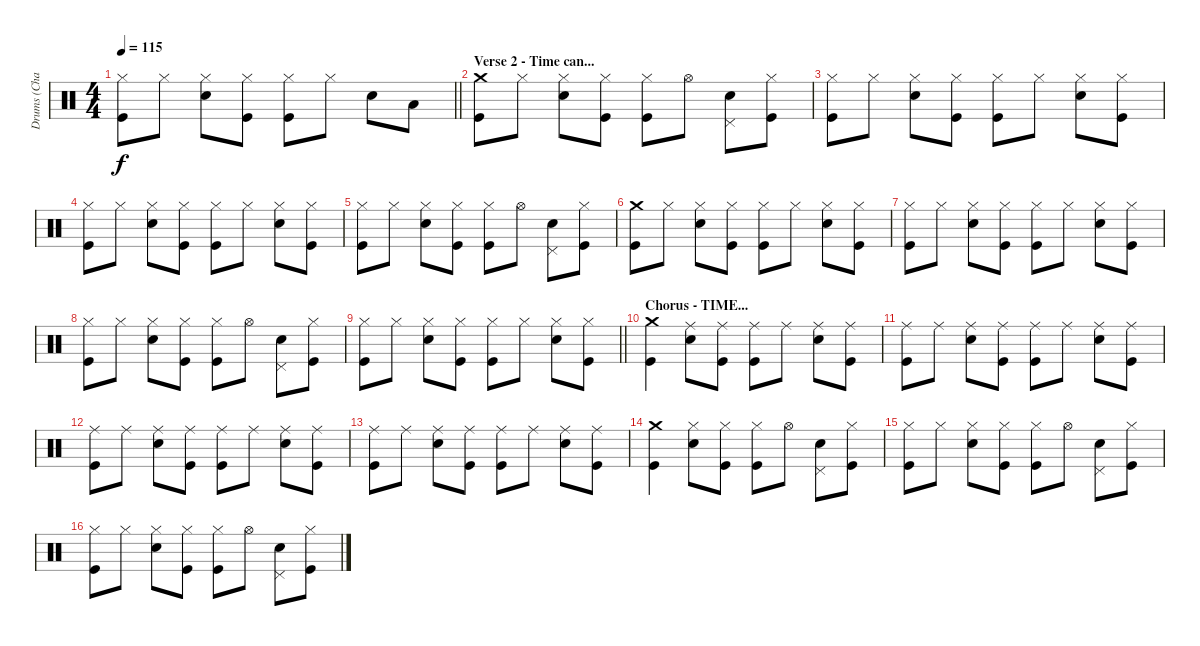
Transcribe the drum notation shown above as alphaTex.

\track ("Drums (Charlie)" "Drums (Cha") {instrument percussion}
\staff {score}
\articulation defaults
\ts (4 4)
\tempo 115
\clef neutral
\barLineRight lightlight
\ks c
("Hi-Hat (closed)" "Kick (hit)").8{dy f} "Hi-Hat (closed)".8 ("Hi-Hat (closed)" "Electric Snare (hit)").8 ("Hi-Hat (closed)" "Kick (hit)").8 ("Hi-Hat (closed)" "Kick (hit)").8 "Hi-Hat (closed)".8 "Electric Snare (hit)".8 "Low Tom (hit)".8 |
\section ("" "Verse 2 - Time can...")
("Crash medium (hit)" "Kick (hit)").8 "Hi-Hat (closed)".8 ("Hi-Hat (closed)" "Electric Snare (hit)").8 ("Hi-Hat (closed)" "Kick (hit)").8 ("Hi-Hat (closed)" "Kick (hit)").8 "Hi-Hat (open)".8 ("Pedal Hi-Hat (hit)" "Electric Snare (hit)").8 ("Hi-Hat (closed)" "Kick (hit)").8 |
("Hi-Hat (closed)" "Kick (hit)").8 "Hi-Hat (closed)".8 ("Hi-Hat (closed)" "Electric Snare (hit)").8 ("Hi-Hat (closed)" "Kick (hit)").8 ("Hi-Hat (closed)" "Kick (hit)").8 "Hi-Hat (closed)".8 ("Hi-Hat (closed)" "Electric Snare (hit)").8 ("Hi-Hat (closed)" "Kick (hit)").8 |
("Hi-Hat (closed)" "Kick (hit)").8 "Hi-Hat (closed)".8 ("Hi-Hat (closed)" "Electric Snare (hit)").8 ("Hi-Hat (closed)" "Kick (hit)").8 ("Hi-Hat (closed)" "Kick (hit)").8 "Hi-Hat (closed)".8 ("Hi-Hat (closed)" "Electric Snare (hit)").8 ("Hi-Hat (closed)" "Kick (hit)").8 |
("Hi-Hat (closed)" "Kick (hit)").8 "Hi-Hat (closed)".8 ("Hi-Hat (closed)" "Electric Snare (hit)").8 ("Hi-Hat (closed)" "Kick (hit)").8 ("Hi-Hat (closed)" "Kick (hit)").8 "Hi-Hat (open)".8 ("Pedal Hi-Hat (hit)" "Electric Snare (hit)").8 ("Hi-Hat (closed)" "Kick (hit)").8 |
("Crash medium (hit)" "Kick (hit)").8 "Hi-Hat (closed)".8 ("Hi-Hat (closed)" "Electric Snare (hit)").8 ("Hi-Hat (closed)" "Kick (hit)").8 ("Hi-Hat (closed)" "Kick (hit)").8 "Hi-Hat (closed)".8 ("Hi-Hat (closed)" "Electric Snare (hit)").8 ("Hi-Hat (closed)" "Kick (hit)").8 |
("Hi-Hat (closed)" "Kick (hit)").8 "Hi-Hat (closed)".8 ("Hi-Hat (closed)" "Electric Snare (hit)").8 ("Hi-Hat (closed)" "Kick (hit)").8 ("Hi-Hat (closed)" "Kick (hit)").8 "Hi-Hat (closed)".8 ("Hi-Hat (closed)" "Electric Snare (hit)").8 ("Hi-Hat (closed)" "Kick (hit)").8 |
("Hi-Hat (closed)" "Kick (hit)").8 "Hi-Hat (closed)".8 ("Hi-Hat (closed)" "Electric Snare (hit)").8 ("Hi-Hat (closed)" "Kick (hit)").8 ("Hi-Hat (closed)" "Kick (hit)").8 "Hi-Hat (open)".8 ("Pedal Hi-Hat (hit)" "Electric Snare (hit)").8 ("Hi-Hat (closed)" "Kick (hit)").8 |
\barLineRight lightlight
("Hi-Hat (closed)" "Kick (hit)").8 "Hi-Hat (closed)".8 ("Hi-Hat (closed)" "Electric Snare (hit)").8 ("Hi-Hat (closed)" "Kick (hit)").8 ("Hi-Hat (closed)" "Kick (hit)").8 "Hi-Hat (closed)".8 ("Hi-Hat (closed)" "Electric Snare (hit)").8 ("Hi-Hat (closed)" "Kick (hit)").8 |
\section ("" "Chorus - TIME...")
("Crash medium (hit)" "Kick (hit)").4 ("Ride (middle)" "Electric Snare (hit)").8 ("Ride (middle)" "Kick (hit)").8 ("Ride (middle)" "Kick (hit)").8 "Ride (middle)".8 ("Ride (middle)" "Electric Snare (hit)").8 ("Ride (middle)" "Kick (hit)").8 |
("Ride (middle)" "Kick (hit)").8 "Ride (middle)".8 ("Ride (middle)" "Electric Snare (hit)").8 ("Ride (middle)" "Kick (hit)").8 ("Ride (middle)" "Kick (hit)").8 "Ride (middle)".8 ("Ride (middle)" "Electric Snare (hit)").8 ("Ride (middle)" "Kick (hit)").8 |
("Ride (middle)" "Kick (hit)").8 "Ride (middle)".8 ("Ride (middle)" "Electric Snare (hit)").8 ("Ride (middle)" "Kick (hit)").8 ("Ride (middle)" "Kick (hit)").8 "Ride (middle)".8 ("Ride (middle)" "Electric Snare (hit)").8 ("Ride (middle)" "Kick (hit)").8 |
("Ride (middle)" "Kick (hit)").8 "Ride (middle)".8 ("Ride (middle)" "Electric Snare (hit)").8 ("Ride (middle)" "Kick (hit)").8 ("Ride (middle)" "Kick (hit)").8 "Ride (middle)".8 ("Ride (middle)" "Electric Snare (hit)").8 ("Ride (middle)" "Kick (hit)").8 |
("Crash medium (hit)" "Kick (hit)").4 ("Hi-Hat (closed)" "Electric Snare (hit)").8 ("Hi-Hat (closed)" "Kick (hit)").8 ("Hi-Hat (closed)" "Kick (hit)").8 "Hi-Hat (open)".8 ("Pedal Hi-Hat (hit)" "Electric Snare (hit)").8 ("Hi-Hat (closed)" "Kick (hit)").8 |
("Hi-Hat (closed)" "Kick (hit)").8 "Hi-Hat (closed)".8 ("Hi-Hat (closed)" "Electric Snare (hit)").8 ("Hi-Hat (closed)" "Kick (hit)").8 ("Hi-Hat (closed)" "Kick (hit)").8 "Hi-Hat (open)".8 ("Pedal Hi-Hat (hit)" "Electric Snare (hit)").8 ("Hi-Hat (closed)" "Kick (hit)").8 |
("Hi-Hat (closed)" "Kick (hit)").8 "Hi-Hat (closed)".8 ("Hi-Hat (closed)" "Electric Snare (hit)").8 ("Hi-Hat (closed)" "Kick (hit)").8 ("Hi-Hat (closed)" "Kick (hit)").8 "Hi-Hat (open)".8 ("Pedal Hi-Hat (hit)" "Electric Snare (hit)").8 ("Hi-Hat (closed)" "Kick (hit)").8
